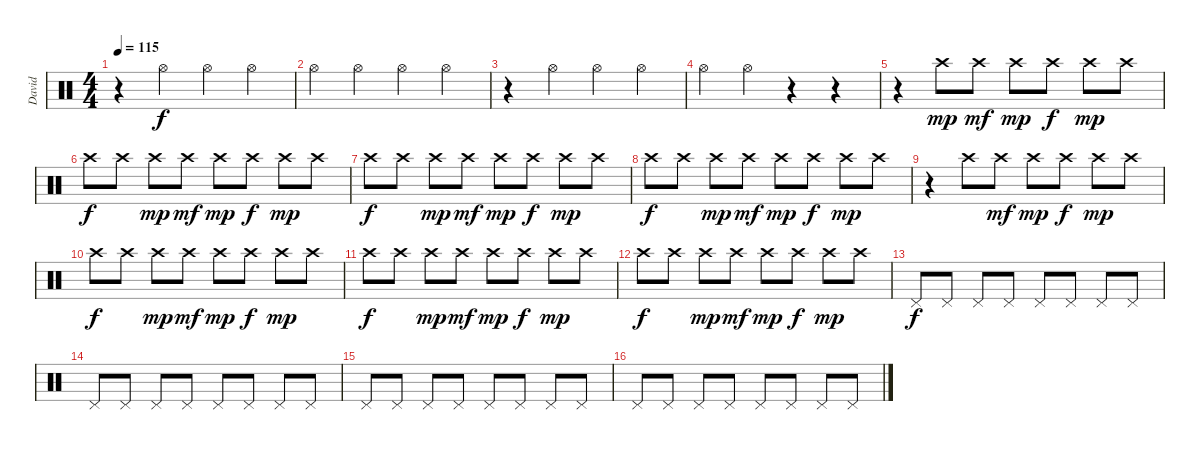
\track ("David" "David") {instrument percussion}
\staff {score}
\articulation defaults
\ts (4 4)
\tempo 115
\clef neutral
\ks c
r.4{dy f} "Hi-Hat (open)".4 "Hi-Hat (open)".4 "Hi-Hat (open)".4 |
"Hi-Hat (open)".4 "Hi-Hat (open)".4 "Hi-Hat (open)".4 "Hi-Hat (open)".4 |
r.4 "Hi-Hat (open)".4 "Hi-Hat (open)".4 "Hi-Hat (open)".4 |
"Hi-Hat (open)".4 "Hi-Hat (open)".4 r.4 r.4 |
r.4 "Crash high (hit)".8{dy mp} "Crash high (hit)".8{dy mf} "Crash high (hit)".8{dy mp} "Crash high (hit)".8{dy f} "Crash high (hit)".8{dy mp} "Crash high (hit)".8 |
"Crash high (hit)".8{dy f} "Crash high (hit)".8 "Crash high (hit)".8{dy mp} "Crash high (hit)".8{dy mf} "Crash high (hit)".8{dy mp} "Crash high (hit)".8{dy f} "Crash high (hit)".8{dy mp} "Crash high (hit)".8 |
"Crash high (hit)".8{dy f} "Crash high (hit)".8 "Crash high (hit)".8{dy mp} "Crash high (hit)".8{dy mf} "Crash high (hit)".8{dy mp} "Crash high (hit)".8{dy f} "Crash high (hit)".8{dy mp} "Crash high (hit)".8 |
"Crash high (hit)".8{dy f} "Crash high (hit)".8 "Crash high (hit)".8{dy mp} "Crash high (hit)".8{dy mf} "Crash high (hit)".8{dy mp} "Crash high (hit)".8{dy f} "Crash high (hit)".8{dy mp} "Crash high (hit)".8 |
r.4 "Crash high (hit)".8 "Crash high (hit)".8{dy mf} "Crash high (hit)".8{dy mp} "Crash high (hit)".8{dy f} "Crash high (hit)".8{dy mp} "Crash high (hit)".8 |
"Crash high (hit)".8{dy f} "Crash high (hit)".8 "Crash high (hit)".8{dy mp} "Crash high (hit)".8{dy mf} "Crash high (hit)".8{dy mp} "Crash high (hit)".8{dy f} "Crash high (hit)".8{dy mp} "Crash high (hit)".8 |
"Crash high (hit)".8{dy f} "Crash high (hit)".8 "Crash high (hit)".8{dy mp} "Crash high (hit)".8{dy mf} "Crash high (hit)".8{dy mp} "Crash high (hit)".8{dy f} "Crash high (hit)".8{dy mp} "Crash high (hit)".8 |
"Crash high (hit)".8{dy f} "Crash high (hit)".8 "Crash high (hit)".8{dy mp} "Crash high (hit)".8{dy mf} "Crash high (hit)".8{dy mp} "Crash high (hit)".8{dy f} "Crash high (hit)".8{dy mp} "Crash high (hit)".8 |
"Pedal Hi-Hat (hit)".8{dy f} "Pedal Hi-Hat (hit)".8 "Pedal Hi-Hat (hit)".8 "Pedal Hi-Hat (hit)".8 "Pedal Hi-Hat (hit)".8 "Pedal Hi-Hat (hit)".8 "Pedal Hi-Hat (hit)".8 "Pedal Hi-Hat (hit)".8 |
"Pedal Hi-Hat (hit)".8 "Pedal Hi-Hat (hit)".8 "Pedal Hi-Hat (hit)".8 "Pedal Hi-Hat (hit)".8 "Pedal Hi-Hat (hit)".8 "Pedal Hi-Hat (hit)".8 "Pedal Hi-Hat (hit)".8 "Pedal Hi-Hat (hit)".8 |
"Pedal Hi-Hat (hit)".8 "Pedal Hi-Hat (hit)".8 "Pedal Hi-Hat (hit)".8 "Pedal Hi-Hat (hit)".8 "Pedal Hi-Hat (hit)".8 "Pedal Hi-Hat (hit)".8 "Pedal Hi-Hat (hit)".8 "Pedal Hi-Hat (hit)".8 |
"Pedal Hi-Hat (hit)".8 "Pedal Hi-Hat (hit)".8 "Pedal Hi-Hat (hit)".8 "Pedal Hi-Hat (hit)".8 "Pedal Hi-Hat (hit)".8 "Pedal Hi-Hat (hit)".8 "Pedal Hi-Hat (hit)".8 "Pedal Hi-Hat (hit)".8
